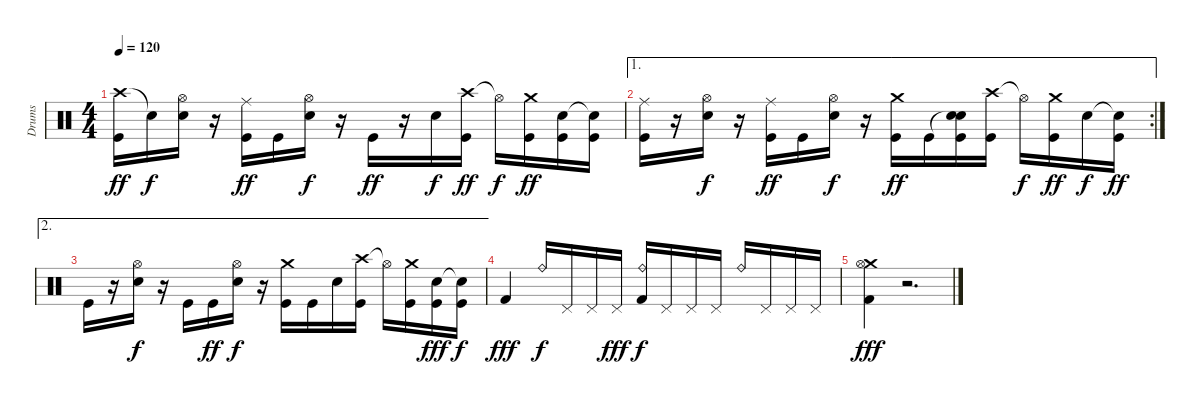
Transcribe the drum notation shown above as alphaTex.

\track ("Drums" "Drums") {instrument percussion}
\staff {score}
\articulation defaults
\ts (4 4)
\tempo 120
\clef neutral
\ks c
("Crash high (hit)" "Kick (hit)").16{dy ff} "Snare (hit)"{t}.16{dy f} ("Hi-Hat (open)" "Electric Snare (hit)").16 r.16 ("Ride (middle)" "Kick (hit)").16{dy ff} "Kick (hit)".16 ("Hi-Hat (open)" "Electric Snare (hit)").16{dy f} r.16 "Kick (hit)".16{dy ff} r.16 "Electric Snare (hit)".16{dy f} ("Crash high (hit)" "Kick (hit)").16{dy ff} "Hi-Hat (open)"{t}.16{dy f} ("Crash medium (hit)" "Kick (hit)").16{dy ff} ("Electric Snare (hit)" "Kick (hit)").16 ("Snare (hit)"{t} "Kick (hit)").16 |
\ae 1
\rc 2
("Ride (middle)" "Kick (hit)").16 r.16 ("Hi-Hat (open)" "Electric Snare (hit)").16{dy f} r.16 ("Ride (middle)" "Kick (hit)").16{dy ff} "Kick (hit)".16 ("Hi-Hat (open)" "Electric Snare (hit)").16{dy f} r.16 ("Crash medium (hit)" "Kick (hit)").16{dy ff} "Kick (hit)".16 ("Snare (hit)"{t} "Electric Snare (hit)" "Kick (hit)").16 ("Crash high (hit)" "Kick (hit)").16 "Hi-Hat (open)"{t}.16{dy f} ("Crash medium (hit)" "Kick (hit)").16{dy ff} "Electric Snare (hit)".16{dy f} ("Snare (hit)"{t} "Kick (hit)").16{dy ff} |
\ae 2 "Kick (hit)".16
r.16 ("Hi-Hat (open)" "Electric Snare (hit)").16{dy f} r.16 "Kick (hit)".16 "Kick (hit)".16{dy ff} ("Hi-Hat (open)" "Electric Snare (hit)").16{dy f} r.16 ("Crash medium (hit)" "Kick (hit)").16 "Kick (hit)".16 "Electric Snare (hit)".16 ("Crash high (hit)" "Kick (hit)").16 "Hi-Hat (open)"{t}.16 ("Crash medium (hit)" "Kick (hit)").16 ("Electric Snare (hit)" "Kick (hit)").16{dy fff} ("Snare (hit)"{t} "Kick (hit)").16{dy f} |
"Kick (hit) 2".4{dy fff} "Ride (bell)".16{dy f} "Pedal Hi-Hat (hit)".16 "Pedal Hi-Hat (hit)".16 "Pedal Hi-Hat (hit)".16{dy fff} ("Ride (bell)" "Kick (hit) 2").16{dy f} "Pedal Hi-Hat (hit)".16 "Pedal Hi-Hat (hit)".16 "Pedal Hi-Hat (hit)".16 "Ride (bell)".16 "Pedal Hi-Hat (hit)".16 "Pedal Hi-Hat (hit)".16 "Pedal Hi-Hat (hit)".16 |
("Crash medium (hit)" "Hi-Hat (open)" "Kick (hit) 2").4{dy fff} r.2{d}
